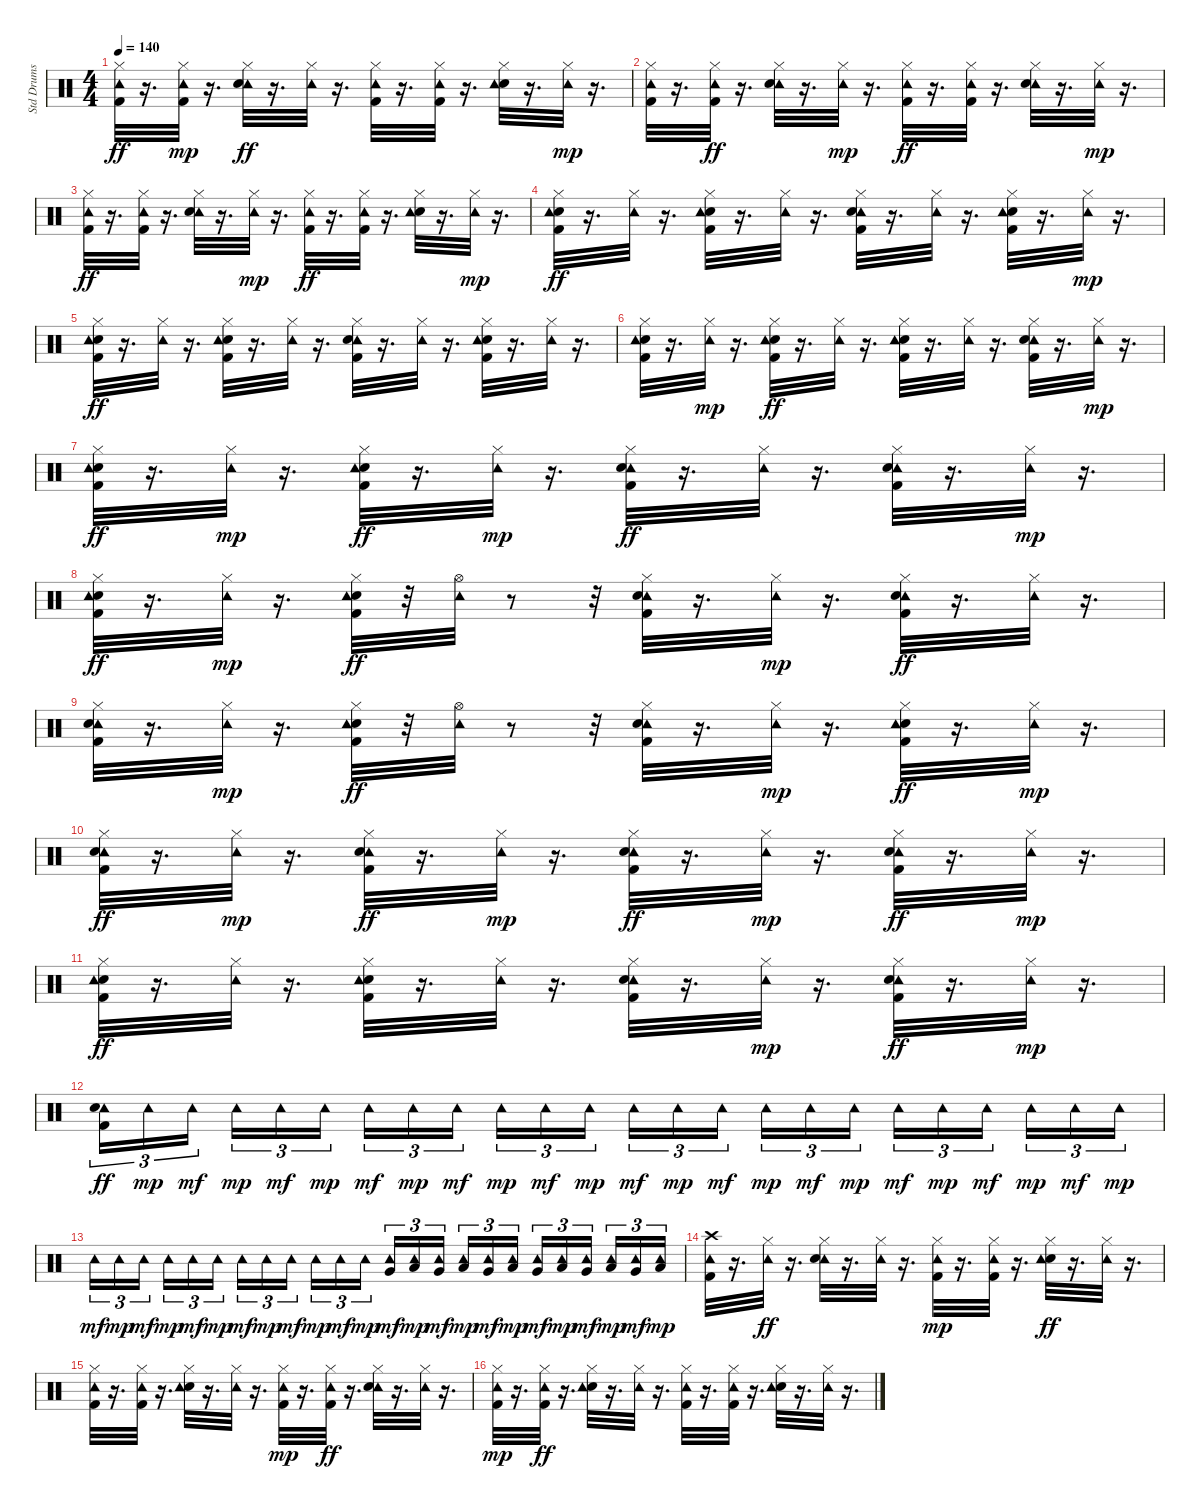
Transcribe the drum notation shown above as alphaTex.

\track ("Std Drums" "Std Drums") {instrument percussion}
\staff {score}
\articulation defaults
\ts (4 4)
\tempo 140
\clef neutral
\ks c
("Tambourine (hit)" "Kick (hit) 2" "Hi-Hat (closed)").32{dy ff} r.16{d} ("Kick (hit) 2" "Hi-Hat (closed)" "Tambourine (hit)").32{dy mp} r.16{d} ("Tambourine (hit)" "Hi-Hat (closed)" "Snare (hit) 2").32{dy ff} r.16{d} ("Tambourine (hit)" "Hi-Hat (closed)").32 r.16{d} ("Tambourine (hit)" "Kick (hit) 2" "Hi-Hat (closed)").32 r.16{d} ("Kick (hit) 2" "Tambourine (hit)" "Hi-Hat (closed)").32 r.16{d} ("Snare (hit) 2" "Hi-Hat (closed)" "Tambourine (hit)").32 r.16{d} ("Hi-Hat (closed)" "Tambourine (hit)").32{dy mp} r.16{d} |
("Hi-Hat (closed)" "Kick (hit) 2" "Tambourine (hit)").32 r.16{d} ("Hi-Hat (closed)" "Tambourine (hit)" "Kick (hit) 2").32{dy ff} r.16{d} ("Hi-Hat (closed)" "Tambourine (hit)" "Snare (hit) 2").32 r.16{d} ("Hi-Hat (closed)" "Tambourine (hit)").32{dy mp} r.16{d} ("Kick (hit) 2" "Tambourine (hit)" "Hi-Hat (closed)").32{dy ff} r.16{d} ("Hi-Hat (closed)" "Tambourine (hit)" "Kick (hit) 2").32 r.16{d} ("Tambourine (hit)" "Hi-Hat (closed)" "Snare (hit) 2").32 r.16{d} ("Hi-Hat (closed)" "Tambourine (hit)").32{dy mp} r.16{d} |
("Tambourine (hit)" "Hi-Hat (closed)" "Kick (hit) 2").32{dy ff} r.16{d} ("Tambourine (hit)" "Kick (hit) 2" "Hi-Hat (closed)").32 r.16{d} ("Tambourine (hit)" "Snare (hit) 2" "Hi-Hat (closed)").32 r.16{d} ("Hi-Hat (closed)" "Tambourine (hit)").32{dy mp} r.16{d} ("Hi-Hat (closed)" "Tambourine (hit)" "Kick (hit) 2").32{dy ff} r.16{d} ("Tambourine (hit)" "Kick (hit) 2" "Hi-Hat (closed)").32 r.16{d} ("Snare (hit) 2" "Hi-Hat (closed)" "Tambourine (hit)").32 r.16{d} ("Hi-Hat (closed)" "Tambourine (hit)").32{dy mp} r.16{d} |
("Snare (hit) 2" "Kick (hit) 2" "Tambourine (hit)" "Hi-Hat (closed)").32{dy ff} r.16{d} ("Tambourine (hit)" "Hi-Hat (closed)").32 r.16{d} ("Kick (hit) 2" "Snare (hit) 2" "Tambourine (hit)" "Hi-Hat (closed)").32 r.16{d} ("Tambourine (hit)" "Hi-Hat (closed)").32 r.16{d} ("Tambourine (hit)" "Hi-Hat (closed)" "Kick (hit) 2" "Snare (hit) 2").32 r.16{d} ("Tambourine (hit)" "Hi-Hat (closed)").32 r.16{d} ("Hi-Hat (closed)" "Kick (hit) 2" "Snare (hit) 2" "Tambourine (hit)").32 r.16{d} ("Hi-Hat (closed)" "Tambourine (hit)").32{dy mp} r.16{d} |
("Snare (hit) 2" "Kick (hit) 2" "Tambourine (hit)" "Hi-Hat (closed)").32{dy ff} r.16{d} ("Tambourine (hit)" "Hi-Hat (closed)").32 r.16{d} ("Snare (hit) 2" "Kick (hit) 2" "Tambourine (hit)" "Hi-Hat (closed)").32 r.16{d} ("Tambourine (hit)" "Hi-Hat (closed)").32 r.16{d} ("Tambourine (hit)" "Hi-Hat (closed)" "Kick (hit) 2" "Snare (hit) 2").32 r.16{d} ("Tambourine (hit)" "Hi-Hat (closed)").32 r.16{d} ("Hi-Hat (closed)" "Snare (hit) 2" "Tambourine (hit)" "Kick (hit) 2").32 r.16{d} ("Tambourine (hit)" "Hi-Hat (closed)").32 r.16{d} |
("Hi-Hat (closed)" "Snare (hit) 2" "Kick (hit) 2" "Tambourine (hit)").32 r.16{d} ("Hi-Hat (closed)" "Tambourine (hit)").32{dy mp} r.16{d} ("Snare (hit) 2" "Hi-Hat (closed)" "Tambourine (hit)" "Kick (hit) 2").32{dy ff} r.16{d} ("Tambourine (hit)" "Hi-Hat (closed)").32 r.16{d} ("Hi-Hat (closed)" "Snare (hit) 2" "Tambourine (hit)" "Kick (hit) 2").32 r.16{d} ("Tambourine (hit)" "Hi-Hat (closed)").32 r.16{d} ("Kick (hit) 2" "Tambourine (hit)" "Hi-Hat (closed)" "Snare (hit) 2").32 r.16{d} ("Hi-Hat (closed)" "Tambourine (hit)").32{dy mp} r.16{d} |
("Kick (hit) 2" "Snare (hit) 2" "Hi-Hat (closed)" "Tambourine (hit)").32{dy ff} r.16{d} ("Hi-Hat (closed)" "Tambourine (hit)").32{dy mp} r.16{d} ("Snare (hit) 2" "Tambourine (hit)" "Hi-Hat (closed)" "Kick (hit) 2").32{dy ff} r.16{d} ("Hi-Hat (closed)" "Tambourine (hit)").32{dy mp} r.16{d} ("Hi-Hat (closed)" "Tambourine (hit)" "Kick (hit) 2" "Snare (hit) 2").32{dy ff} r.16{d} ("Tambourine (hit)" "Hi-Hat (closed)").32 r.16{d} ("Tambourine (hit)" "Snare (hit) 2" "Kick (hit) 2" "Hi-Hat (closed)").32 r.16{d} ("Hi-Hat (closed)" "Tambourine (hit)").32{dy mp} r.16{d} |
("Snare (hit) 2" "Tambourine (hit)" "Hi-Hat (closed)" "Kick (hit) 2").32{dy ff} r.16{d} ("Hi-Hat (closed)" "Tambourine (hit)").32{dy mp} r.16{d} ("Snare (hit) 2" "Tambourine (hit)" "Hi-Hat (closed)" "Kick (hit) 2").32{dy ff} r.32 ("Tambourine (hit)" "Hi-Hat (open)").32 r.8 r.32 ("Tambourine (hit)" "Kick (hit) 2" "Snare (hit) 2" "Hi-Hat (closed)").32 r.16{d} ("Hi-Hat (closed)" "Tambourine (hit)").32{dy mp} r.16{d} ("Kick (hit) 2" "Hi-Hat (closed)" "Tambourine (hit)" "Snare (hit) 2").32{dy ff} r.16{d} ("Tambourine (hit)" "Hi-Hat (closed)").32 r.16{d} |
("Hi-Hat (closed)" "Kick (hit) 2" "Tambourine (hit)" "Snare (hit) 2").32 r.16{d} ("Hi-Hat (closed)" "Tambourine (hit)").32{dy mp} r.16{d} ("Kick (hit) 2" "Snare (hit) 2" "Tambourine (hit)" "Hi-Hat (closed)").32{dy ff} r.32 ("Hi-Hat (open)" "Tambourine (hit)").32 r.8 r.32 ("Tambourine (hit)" "Snare (hit) 2" "Hi-Hat (closed)" "Kick (hit) 2").32 r.16{d} ("Hi-Hat (closed)" "Tambourine (hit)").32{dy mp} r.16{d} ("Snare (hit) 2" "Hi-Hat (closed)" "Tambourine (hit)" "Kick (hit) 2").32{dy ff} r.16{d} ("Hi-Hat (closed)" "Tambourine (hit)").32{dy mp} r.16{d} |
("Tambourine (hit)" "Snare (hit) 2" "Kick (hit) 2" "Hi-Hat (closed)").32{dy ff} r.16{d} ("Hi-Hat (closed)" "Tambourine (hit)").32{dy mp} r.16{d} ("Tambourine (hit)" "Kick (hit) 2" "Hi-Hat (closed)" "Snare (hit) 2").32{dy ff} r.16{d} ("Hi-Hat (closed)" "Tambourine (hit)").32{dy mp} r.16{d} ("Tambourine (hit)" "Kick (hit) 2" "Snare (hit) 2" "Hi-Hat (closed)").32{dy ff} r.16{d} ("Hi-Hat (closed)" "Tambourine (hit)").32{dy mp} r.16{d} ("Tambourine (hit)" "Hi-Hat (closed)" "Snare (hit) 2" "Kick (hit) 2").32{dy ff} r.16{d} ("Hi-Hat (closed)" "Tambourine (hit)").32{dy mp} r.16{d} |
("Snare (hit) 2" "Hi-Hat (closed)" "Tambourine (hit)" "Kick (hit) 2").32{dy ff} r.16{d} ("Tambourine (hit)" "Hi-Hat (closed)").32 r.16{d} ("Kick (hit) 2" "Snare (hit) 2" "Hi-Hat (closed)" "Tambourine (hit)").32 r.16{d} ("Tambourine (hit)" "Hi-Hat (closed)").32 r.16{d} ("Tambourine (hit)" "Hi-Hat (closed)" "Kick (hit) 2" "Snare (hit) 2").32 r.16{d} ("Hi-Hat (closed)" "Tambourine (hit)").32{dy mp} r.16{d} ("Kick (hit) 2" "Hi-Hat (closed)" "Tambourine (hit)" "Snare (hit) 2").32{dy ff} r.16{d} ("Hi-Hat (closed)" "Tambourine (hit)").32{dy mp} r.16{d} |
("Tambourine (hit)" "Kick (hit) 2" "Snare (hit) 2").16{tu (3 2) dy ff} "Tambourine (hit)".16{tu (3 2) dy mp} "Tambourine (hit)".16{tu (3 2) dy mf} "Tambourine (hit)".16{tu (3 2) dy mp} "Tambourine (hit)".16{tu (3 2) dy mf} "Tambourine (hit)".16{tu (3 2) dy mp} "Tambourine (hit)".16{tu (3 2) dy mf} "Tambourine (hit)".16{tu (3 2) dy mp} "Tambourine (hit)".16{tu (3 2) dy mf} "Tambourine (hit)".16{tu (3 2) dy mp} "Tambourine (hit)".16{tu (3 2) dy mf} "Tambourine (hit)".16{tu (3 2) dy mp} "Tambourine (hit)".16{tu (3 2) dy mf} "Tambourine (hit)".16{tu (3 2) dy mp} "Tambourine (hit)".16{tu (3 2) dy mf} "Tambourine (hit)".16{tu (3 2) dy mp} "Tambourine (hit)".16{tu (3 2) dy mf} "Tambourine (hit)".16{tu (3 2) dy mp} "Tambourine (hit)".16{tu (3 2) dy mf} "Tambourine (hit)".16{tu (3 2) dy mp} "Tambourine (hit)".16{tu (3 2) dy mf} "Tambourine (hit)".16{tu (3 2) dy mp} "Tambourine (hit)".16{tu (3 2) dy mf} "Tambourine (hit)".16{tu (3 2) dy mp} |
"Tambourine (hit)".16{tu (3 2) dy mf} "Tambourine (hit)".16{tu (3 2) dy mp} "Tambourine (hit)".16{tu (3 2) dy mf} "Tambourine (hit)".16{tu (3 2) dy mp} "Tambourine (hit)".16{tu (3 2) dy mf} "Tambourine (hit)".16{tu (3 2) dy mp} "Tambourine (hit)".16{tu (3 2) dy mf} "Tambourine (hit)".16{tu (3 2) dy mp} "Tambourine (hit)".16{tu (3 2) dy mf} "Tambourine (hit)".16{tu (3 2) dy mp} "Tambourine (hit)".16{tu (3 2) dy mf} "Tambourine (hit)".16{tu (3 2) dy mp} ("Tambourine (hit)" "Very Low Tom (hit)").16{tu (3 2) dy mf} ("Low Floor Tom (hit)" "Tambourine (hit)").16{tu (3 2) dy mp} ("Tambourine (hit)" "Very Low Tom (hit)").16{tu (3 2) dy mf} ("Low Floor Tom (hit)" "Tambourine (hit)").16{tu (3 2) dy mp} ("Tambourine (hit)" "Very Low Tom (hit)").16{tu (3 2) dy mf} ("Low Floor Tom (hit)" "Tambourine (hit)").16{tu (3 2) dy mp} ("Tambourine (hit)" "Very Low Tom (hit)").16{tu (3 2) dy mf} ("Tambourine (hit)" "Low Floor Tom (hit)").16{tu (3 2) dy mp} ("Very Low Tom (hit)" "Tambourine (hit)").16{tu (3 2) dy mf} ("Low Floor Tom (hit)" "Tambourine (hit)").16{tu (3 2) dy mp} ("Tambourine (hit)" "Very Low Tom (hit)").16{tu (3 2) dy mf} ("Tambourine (hit)" "Low Floor Tom (hit)").16{tu (3 2) dy mp} |
("Crash high (hit)" "Kick (hit) 2" "Tambourine (hit)").32 r.16{d} ("Tambourine (hit)" "Hi-Hat (closed)").32{dy ff} r.16{d} ("Hi-Hat (closed)" "Tambourine (hit)" "Snare (hit) 2").32 r.16{d} ("Tambourine (hit)" "Hi-Hat (closed)").32 r.16{d} ("Hi-Hat (closed)" "Kick (hit) 2" "Tambourine (hit)").32{dy mp} r.16{d} ("Kick (hit) 2" "Hi-Hat (closed)" "Tambourine (hit)").32 r.16{d} ("Snare (hit) 2" "Hi-Hat (closed)" "Tambourine (hit)").32{dy ff} r.16{d} ("Tambourine (hit)" "Hi-Hat (closed)").32 r.16{d} |
("Tambourine (hit)" "Hi-Hat (closed)" "Kick (hit) 2").32 r.16{d} ("Kick (hit) 2" "Tambourine (hit)" "Hi-Hat (closed)").32 r.16{d} ("Snare (hit) 2" "Hi-Hat (closed)" "Tambourine (hit)").32 r.16{d} ("Tambourine (hit)" "Hi-Hat (closed)").32 r.16{d} ("Kick (hit) 2" "Hi-Hat (closed)" "Tambourine (hit)").32{dy mp} r.16{d} ("Kick (hit) 2" "Tambourine (hit)" "Hi-Hat (closed)").32{dy ff} r.16{d} ("Hi-Hat (closed)" "Tambourine (hit)" "Snare (hit) 2").32 r.16{d} ("Tambourine (hit)" "Hi-Hat (closed)").32 r.16{d} |
("Kick (hit) 2" "Hi-Hat (closed)" "Tambourine (hit)").32{dy mp} r.16{d} ("Tambourine (hit)" "Hi-Hat (closed)" "Kick (hit) 2").32{dy ff} r.16{d} ("Snare (hit) 2" "Hi-Hat (closed)" "Tambourine (hit)").32 r.16{d} ("Tambourine (hit)" "Hi-Hat (closed)").32 r.16{d} ("Kick (hit) 2" "Tambourine (hit)" "Hi-Hat (closed)").32 r.16{d} ("Tambourine (hit)" "Kick (hit) 2" "Hi-Hat (closed)").32 r.16{d} ("Snare (hit) 2" "Hi-Hat (closed)" "Tambourine (hit)").32 r.16{d} ("Tambourine (hit)" "Hi-Hat (closed)").32 r.16{d}
